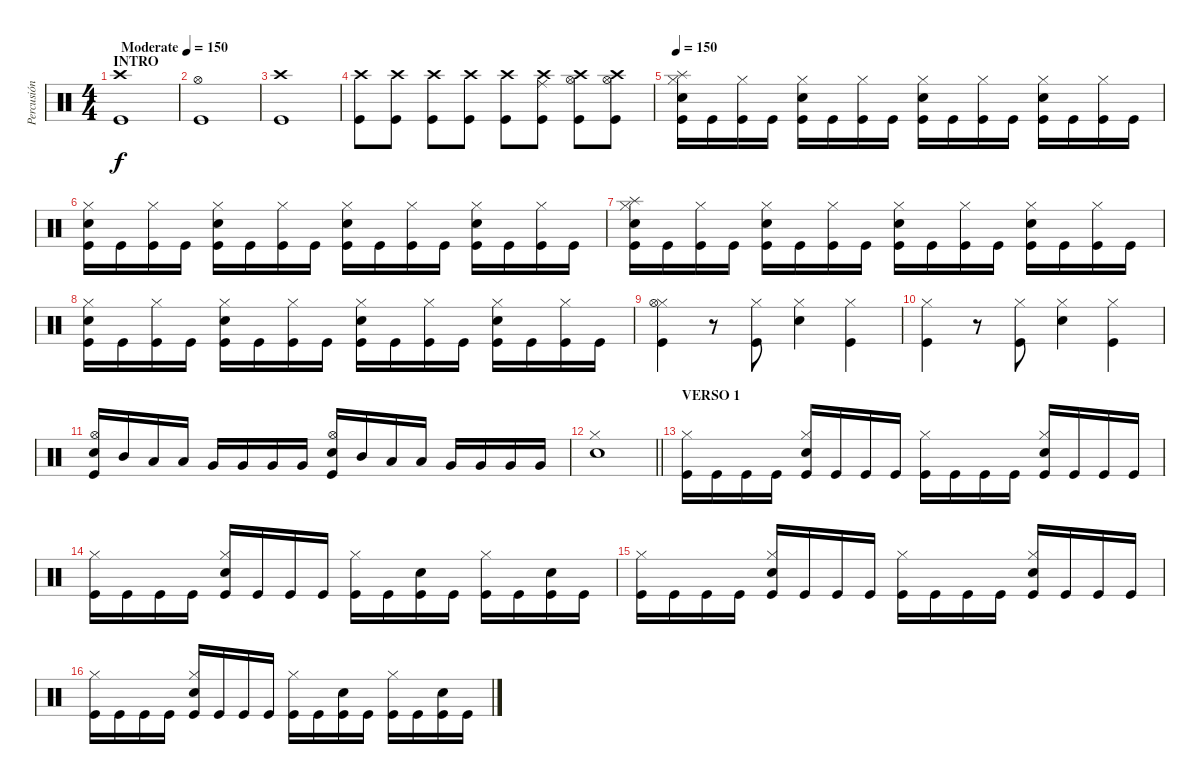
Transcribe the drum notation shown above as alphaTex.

\track ("Percusión" "Percusión") {instrument percussion}
\staff {score}
\articulation defaults
\ts (4 4)
\section ("" "INTRO")
\tempo (150 "Moderate")
\tempo 80
\tempo (150 "Moderate")
\clef neutral
\ks c
("Crash high (hit)" "Kick (hit)").1{dy f} |
("Hi-Hat (open)" "Kick (hit)").1 |
("Crash high (hit)" "Kick (hit)").1 |
("Crash high (hit)" "Kick (hit)").8 ("Crash high (hit)" "Kick (hit)").8 ("Crash high (hit)" "Kick (hit)").8 ("Crash high (hit)" "Kick (hit)").8 ("Crash high (hit)" "Kick (hit)").8 ("Crash high (hit)" "Ride (middle)" "Kick (hit)").8 ("Crash high (hit)" "Hi-Hat (open)" "Kick (hit)").8 ("Crash high (hit)" "Hi-Hat (open)" "Kick (hit)").8 |
\tempo 150
("Hi-Hat (closed)" "Splash (hit)" "Snare (hit) 2" "Kick (hit)").16 "Kick (hit)".16 ("Hi-Hat (closed)" "Kick (hit)").16 "Kick (hit)".16 ("Hi-Hat (closed)" "Snare (hit) 2" "Kick (hit)").16 "Kick (hit)".16 ("Hi-Hat (closed)" "Kick (hit)").16 "Kick (hit)".16 ("Hi-Hat (closed)" "Snare (hit) 2" "Kick (hit)").16 "Kick (hit)".16 ("Hi-Hat (closed)" "Kick (hit)").16 "Kick (hit)".16 ("Hi-Hat (closed)" "Snare (hit) 2" "Kick (hit)").16 "Kick (hit)".16 ("Hi-Hat (closed)" "Kick (hit)").16 "Kick (hit)".16 |
("Hi-Hat (closed)" "Snare (hit) 2" "Kick (hit)").16 "Kick (hit)".16 ("Hi-Hat (closed)" "Kick (hit)").16 "Kick (hit)".16 ("Hi-Hat (closed)" "Snare (hit) 2" "Kick (hit)").16 "Kick (hit)".16 ("Hi-Hat (closed)" "Kick (hit)").16 "Kick (hit)".16 ("Hi-Hat (closed)" "Snare (hit) 2" "Kick (hit)").16 "Kick (hit)".16 ("Hi-Hat (closed)" "Kick (hit)").16 "Kick (hit)".16 ("Hi-Hat (closed)" "Snare (hit) 2" "Kick (hit)").16 "Kick (hit)".16 ("Hi-Hat (closed)" "Kick (hit)").16 "Kick (hit)".16 |
("Hi-Hat (closed)" "Splash (hit)" "Snare (hit) 2" "Kick (hit)").16 "Kick (hit)".16 ("Hi-Hat (closed)" "Kick (hit)").16 "Kick (hit)".16 ("Hi-Hat (closed)" "Snare (hit) 2" "Kick (hit)").16 "Kick (hit)".16 ("Hi-Hat (closed)" "Kick (hit)").16 "Kick (hit)".16 ("Hi-Hat (closed)" "Snare (hit) 2" "Kick (hit)").16 "Kick (hit)".16 ("Hi-Hat (closed)" "Kick (hit)").16 "Kick (hit)".16 ("Hi-Hat (closed)" "Snare (hit) 2" "Kick (hit)").16 "Kick (hit)".16 ("Hi-Hat (closed)" "Kick (hit)").16 "Kick (hit)".16 |
("Hi-Hat (closed)" "Snare (hit) 2" "Kick (hit)").16 "Kick (hit)".16 ("Hi-Hat (closed)" "Kick (hit)").16 "Kick (hit)".16 ("Hi-Hat (closed)" "Snare (hit) 2" "Kick (hit)").16 "Kick (hit)".16 ("Hi-Hat (closed)" "Kick (hit)").16 "Kick (hit)".16 ("Hi-Hat (closed)" "Snare (hit) 2" "Kick (hit)").16 "Kick (hit)".16 ("Hi-Hat (closed)" "Kick (hit)").16 "Kick (hit)".16 ("Hi-Hat (closed)" "Snare (hit) 2" "Kick (hit)").16 "Kick (hit)".16 ("Hi-Hat (closed)" "Kick (hit)").16 "Kick (hit)".16 |
("Hi-Hat (closed)" "Hi-Hat (open)" "Kick (hit)").4 r.8 ("Hi-Hat (closed)" "Kick (hit)").8 ("Hi-Hat (closed)" "Snare (hit) 2").4 ("Hi-Hat (closed)" "Kick (hit)").4 |
("Hi-Hat (closed)" "Kick (hit)").4 r.8 ("Hi-Hat (closed)" "Kick (hit)").8 ("Hi-Hat (closed)" "Snare (hit) 2").4 ("Hi-Hat (closed)" "Kick (hit)").4 |
("Hi-Hat (open)" "Snare (hit) 2" "Kick (hit)").16 "Mid Tom (hit)".16 "Low Tom (hit)".16 "Low Tom (hit)".16 "Very Low Tom (hit)".16 "Very Low Tom (hit)".16 "Very Low Tom (hit)".16 "Very Low Tom (hit)".16 ("Hi-Hat (open)" "Snare (hit) 2" "Kick (hit)").16 "Mid Tom (hit)".16 "Low Tom (hit)".16 "Low Tom (hit)".16 "Very Low Tom (hit)".16 "Very Low Tom (hit)".16 "Very Low Tom (hit)".16 "Very Low Tom (hit)".16 |
\barLineRight lightlight
("Hi-Hat (closed)" "Snare (hit) 2").1 |
\section ("" "VERSO 1")
("Hi-Hat (closed)" "Kick (hit)").16 "Kick (hit)".16 "Kick (hit)".16 "Kick (hit)".16 ("Hi-Hat (closed)" "Snare (hit) 2" "Kick (hit)").16 "Kick (hit)".16 "Kick (hit)".16 "Kick (hit)".16 ("Hi-Hat (closed)" "Kick (hit)").16 "Kick (hit)".16 "Kick (hit)".16 "Kick (hit)".16 ("Hi-Hat (closed)" "Snare (hit) 2" "Kick (hit)").16 "Kick (hit)".16 "Kick (hit)".16 "Kick (hit)".16 |
("Hi-Hat (closed)" "Kick (hit)").16 "Kick (hit)".16 "Kick (hit)".16 "Kick (hit)".16 ("Hi-Hat (closed)" "Snare (hit) 2" "Kick (hit)").16 "Kick (hit)".16 "Kick (hit)".16 "Kick (hit)".16 ("Hi-Hat (closed)" "Kick (hit)").16 "Kick (hit)".16 ("Snare (hit) 2" "Kick (hit)").16 "Kick (hit)".16 ("Hi-Hat (closed)" "Kick (hit)").16 "Kick (hit)".16 ("Snare (hit) 2" "Kick (hit)").16 "Kick (hit)".16 |
("Hi-Hat (closed)" "Kick (hit)").16 "Kick (hit)".16 "Kick (hit)".16 "Kick (hit)".16 ("Hi-Hat (closed)" "Snare (hit) 2" "Kick (hit)").16 "Kick (hit)".16 "Kick (hit)".16 "Kick (hit)".16 ("Hi-Hat (closed)" "Kick (hit)").16 "Kick (hit)".16 "Kick (hit)".16 "Kick (hit)".16 ("Hi-Hat (closed)" "Snare (hit) 2" "Kick (hit)").16 "Kick (hit)".16 "Kick (hit)".16 "Kick (hit)".16 |
("Hi-Hat (closed)" "Kick (hit)").16 "Kick (hit)".16 "Kick (hit)".16 "Kick (hit)".16 ("Hi-Hat (closed)" "Snare (hit) 2" "Kick (hit)").16 "Kick (hit)".16 "Kick (hit)".16 "Kick (hit)".16 ("Hi-Hat (closed)" "Kick (hit)").16 "Kick (hit)".16 ("Snare (hit) 2" "Kick (hit)").16 "Kick (hit)".16 ("Hi-Hat (closed)" "Kick (hit)").16 "Kick (hit)".16 ("Snare (hit) 2" "Kick (hit)").16 "Kick (hit)".16
